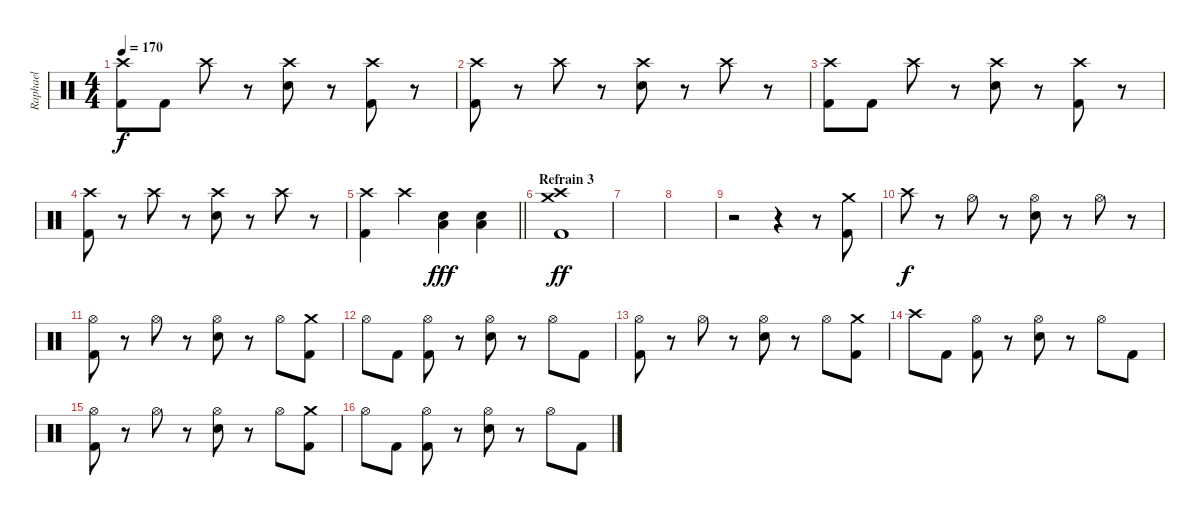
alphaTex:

\track ("Raphael" "Raphael") {instrument percussion}
\staff {score}
\articulation defaults
\ts (4 4)
\tempo 170
\clef neutral
\ks c
("Kick (hit) 2" "Crash high (hit)").8{dy f} "Kick (hit) 2".8 "Crash high (hit)".8 r.8 ("Snare (hit) 2" "Crash high (hit)").8 r.8 ("Kick (hit) 2" "Crash high (hit)").8 r.8 |
("Kick (hit) 2" "Crash high (hit)").8 r.8 "Crash high (hit)".8 r.8 ("Snare (hit) 2" "Crash high (hit)").8 r.8 "Crash high (hit)".8 r.8 |
("Kick (hit) 2" "Crash high (hit)").8 "Kick (hit) 2".8 "Crash high (hit)".8 r.8 ("Snare (hit) 2" "Crash high (hit)").8 r.8 ("Kick (hit) 2" "Crash high (hit)").8 r.8 |
("Kick (hit) 2" "Crash high (hit)").8 r.8 "Crash high (hit)".8 r.8 ("Snare (hit) 2" "Crash high (hit)").8 r.8 "Crash high (hit)".8 r.8 |
\barLineRight lightlight
("Kick (hit) 2" "Crash high (hit)").4 "Crash high (hit)".4 ("Snare (hit) 2" "Low Floor Tom (hit)").4{dy fff} ("Snare (hit) 2" "Low Floor Tom (hit)").4 |
\section ("" "Refrain 3")
("Kick (hit) 2" "Crash medium (hit)" "Crash high (hit)").1{dy ff} |
|
|
r.2 r.4 r.8 ("Kick (hit) 2" "Crash medium (hit)").8 |
"Crash high (hit)".8{dy f} r.8 "Hi-Hat (open)".8 r.8 ("Snare (hit) 2" "Hi-Hat (open)").8 r.8 "Hi-Hat (open)".8 r.8 |
("Kick (hit) 2" "Hi-Hat (open)").8 r.8 "Hi-Hat (open)".8 r.8 ("Snare (hit) 2" "Hi-Hat (open)").8 r.8 "Hi-Hat (open)".8 ("Kick (hit) 2" "Crash medium (hit)").8 |
"Hi-Hat (open)".8 "Kick (hit) 2".8 ("Kick (hit) 2" "Hi-Hat (open)").8 r.8 ("Snare (hit) 2" "Hi-Hat (open)").8 r.8 "Hi-Hat (open)".8 "Kick (hit) 2".8 |
("Kick (hit) 2" "Hi-Hat (open)").8 r.8 "Hi-Hat (open)".8 r.8 ("Snare (hit) 2" "Hi-Hat (open)").8 r.8 "Hi-Hat (open)".8 ("Kick (hit) 2" "Crash medium (hit)").8 |
"Crash high (hit)".8 "Kick (hit) 2".8 ("Kick (hit) 2" "Hi-Hat (open)").8 r.8 ("Snare (hit) 2" "Hi-Hat (open)").8 r.8 "Hi-Hat (open)".8 "Kick (hit) 2".8 |
("Kick (hit) 2" "Hi-Hat (open)").8 r.8 "Hi-Hat (open)".8 r.8 ("Snare (hit) 2" "Hi-Hat (open)").8 r.8 "Hi-Hat (open)".8 ("Kick (hit) 2" "Crash medium (hit)").8 |
"Hi-Hat (open)".8 "Kick (hit) 2".8 ("Kick (hit) 2" "Hi-Hat (open)").8 r.8 ("Snare (hit) 2" "Hi-Hat (open)").8 r.8 "Hi-Hat (open)".8 "Kick (hit) 2".8
